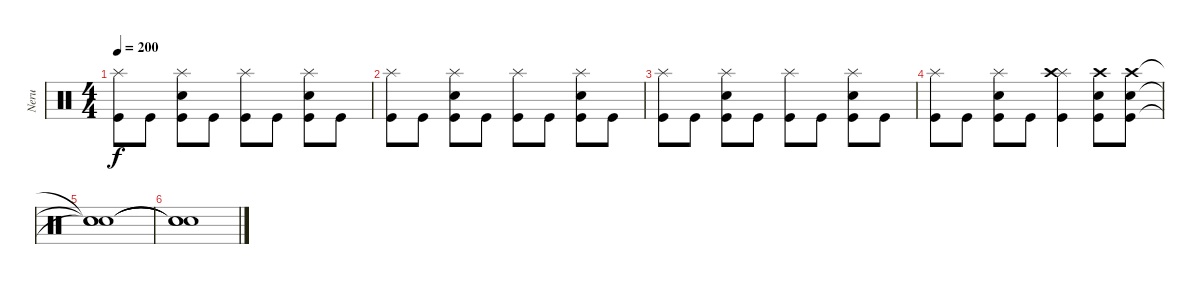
\track ("Neru" "Neru") {instrument percussion}
\staff {score}
\articulation defaults
\ts (4 4)
\tempo 200
\clef neutral
\ks c
("Splash (hit)" "Kick (hit)").8{dy f} "Kick (hit)".8 ("Splash (hit)" "Electric Snare (hit)" "Kick (hit)").8 "Kick (hit)".8 ("Splash (hit)" "Kick (hit)").8 "Kick (hit)".8 ("Splash (hit)" "Electric Snare (hit)" "Kick (hit)").8 "Kick (hit)".8 |
("Splash (hit)" "Kick (hit)").8 "Kick (hit)".8 ("Splash (hit)" "Electric Snare (hit)" "Kick (hit)").8 "Kick (hit)".8 ("Splash (hit)" "Kick (hit)").8 "Kick (hit)".8 ("Splash (hit)" "Electric Snare (hit)" "Kick (hit)").8 "Kick (hit)".8 |
("Splash (hit)" "Kick (hit)").8 "Kick (hit)".8 ("Splash (hit)" "Electric Snare (hit)" "Kick (hit)").8 "Kick (hit)".8 ("Splash (hit)" "Kick (hit)").8 "Kick (hit)".8 ("Splash (hit)" "Electric Snare (hit)" "Kick (hit)").8 "Kick (hit)".8 |
("Splash (hit)" "Kick (hit)").8 "Kick (hit)".8 ("Splash (hit)" "Electric Snare (hit)" "Kick (hit)").8 "Kick (hit)".8 ("Splash (hit)" "Crash high (hit)" "Kick (hit)").4 ("Crash high (hit)" "Electric Snare (hit)" "Kick (hit)").8 ("Crash high (hit)" "Electric Snare (hit)" "Kick (hit)").8 |
("Snare (hit)"{t} "Snare (hit)"{t} "Snare (hit)"{t}).1 |
("Snare (hit)"{t} "Snare (hit)"{t} "Snare (hit)"{t}).1
